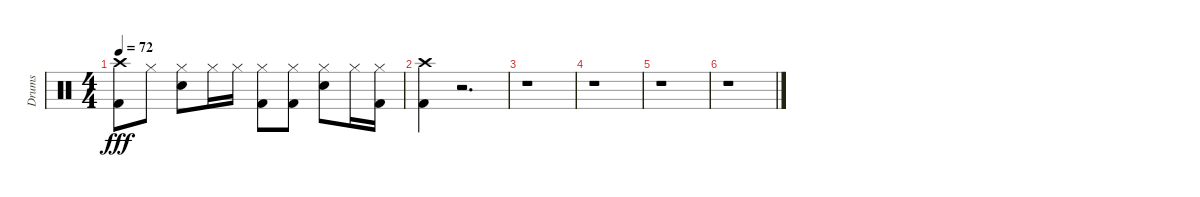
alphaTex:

\track ("Drums" "Drums") {instrument percussion}
\staff {score}
\articulation defaults
\ts (4 4)
\tempo 72
\clef neutral
\ks c
("Crash high (hit)" "Kick (hit) 2").8{dy fff} "Hi-Hat (closed)".8 ("Hi-Hat (closed)" "Snare (hit) 2").8 "Hi-Hat (closed)".16 "Hi-Hat (closed)".16 ("Hi-Hat (closed)" "Kick (hit) 2").8 ("Hi-Hat (closed)" "Kick (hit) 2").8 ("Hi-Hat (closed)" "Snare (hit) 2").8 "Hi-Hat (closed)".16 ("Hi-Hat (closed)" "Kick (hit) 2").16 |
("Crash high (hit)" "Kick (hit) 2").4 r.2{d} |
r.1 |
r.1 |
r.1 |
r.1
